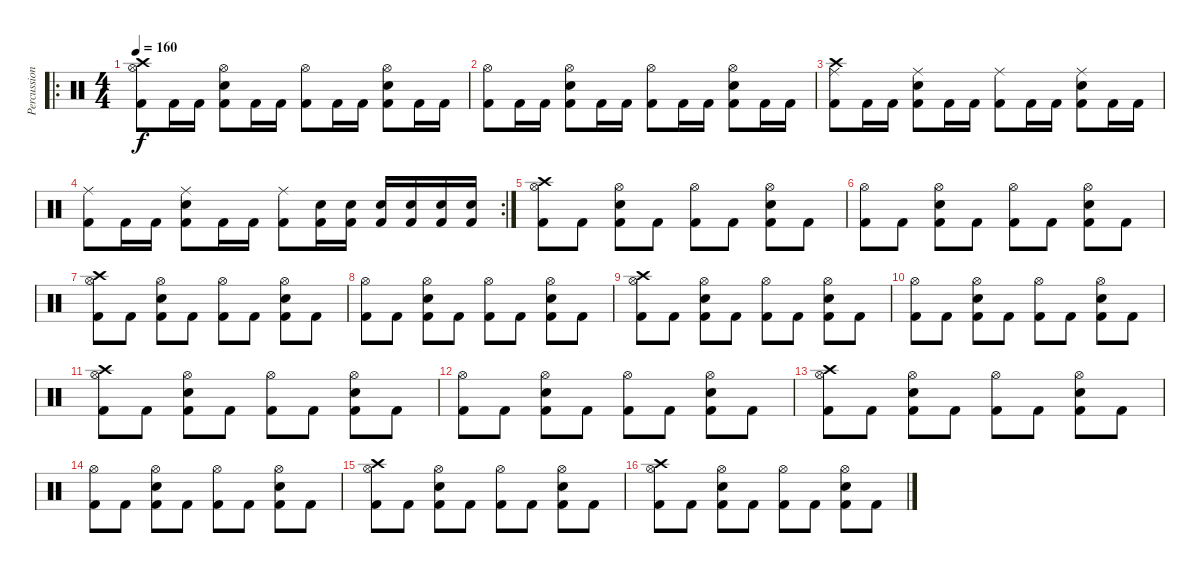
\track ("Percussion" "Percussion") {instrument percussion}
\staff {score}
\articulation defaults
\ro
\ts (4 4)
\tempo 160
\clef neutral
\ks c
("Crash high (hit)" "Hi-Hat (open)" "Kick (hit) 2").8{dy f} "Kick (hit) 2".16 "Kick (hit) 2".16 ("Hi-Hat (open)" "Electric Snare (hit)" "Kick (hit) 2").8 "Kick (hit) 2".16 "Kick (hit) 2".16 ("Hi-Hat (open)" "Kick (hit) 2").8 "Kick (hit) 2".16 "Kick (hit) 2".16 ("Hi-Hat (open)" "Electric Snare (hit)" "Kick (hit) 2").8 "Kick (hit) 2".16 "Kick (hit) 2".16 |
("Hi-Hat (open)" "Kick (hit) 2").8 "Kick (hit) 2".16 "Kick (hit) 2".16 ("Hi-Hat (open)" "Electric Snare (hit)" "Kick (hit) 2").8 "Kick (hit) 2".16 "Kick (hit) 2".16 ("Hi-Hat (open)" "Kick (hit) 2").8 "Kick (hit) 2".16 "Kick (hit) 2".16 ("Hi-Hat (open)" "Electric Snare (hit)" "Kick (hit) 2").8 "Kick (hit) 2".16 "Kick (hit) 2".16 |
("Crash high (hit)" "Ride (middle)" "Kick (hit) 2").8 "Kick (hit) 2".16 "Kick (hit) 2".16 ("Ride (middle)" "Electric Snare (hit)" "Kick (hit) 2").8 "Kick (hit) 2".16 "Kick (hit) 2".16 ("Ride (middle)" "Kick (hit) 2").8 "Kick (hit) 2".16 "Kick (hit) 2".16 ("Ride (middle)" "Electric Snare (hit)" "Kick (hit) 2").8 "Kick (hit) 2".16 "Kick (hit) 2".16 |
\rc 2
("Ride (middle)" "Kick (hit) 2").8 "Kick (hit) 2".16 "Kick (hit) 2".16 ("Ride (middle)" "Electric Snare (hit)" "Kick (hit) 2").8 "Kick (hit) 2".16 "Kick (hit) 2".16 ("Ride (middle)" "Kick (hit) 2").8 ("Electric Snare (hit)" "Kick (hit) 2").16 ("Electric Snare (hit)" "Kick (hit) 2").16 ("Electric Snare (hit)" "Kick (hit) 2").16 ("Electric Snare (hit)" "Kick (hit) 2").16 ("Electric Snare (hit)" "Kick (hit) 2").16 ("Electric Snare (hit)" "Kick (hit) 2").16 |
("Crash high (hit)" "Hi-Hat (open)" "Kick (hit) 2").8 "Kick (hit) 2".8 ("Hi-Hat (open)" "Electric Snare (hit)" "Kick (hit) 2").8 "Kick (hit) 2".8 ("Hi-Hat (open)" "Kick (hit) 2").8 "Kick (hit) 2".8 ("Hi-Hat (open)" "Electric Snare (hit)" "Kick (hit) 2").8 "Kick (hit) 2".8 |
("Hi-Hat (open)" "Kick (hit) 2").8 "Kick (hit) 2".8 ("Hi-Hat (open)" "Electric Snare (hit)" "Kick (hit) 2").8 "Kick (hit) 2".8 ("Hi-Hat (open)" "Kick (hit) 2").8 "Kick (hit) 2".8 ("Hi-Hat (open)" "Electric Snare (hit)" "Kick (hit) 2").8 "Kick (hit) 2".8 |
("Crash high (hit)" "Hi-Hat (open)" "Kick (hit) 2").8 "Kick (hit) 2".8 ("Hi-Hat (open)" "Electric Snare (hit)" "Kick (hit) 2").8 "Kick (hit) 2".8 ("Hi-Hat (open)" "Kick (hit) 2").8 "Kick (hit) 2".8 ("Hi-Hat (open)" "Electric Snare (hit)" "Kick (hit) 2").8 "Kick (hit) 2".8 |
("Hi-Hat (open)" "Kick (hit) 2").8 "Kick (hit) 2".8 ("Hi-Hat (open)" "Electric Snare (hit)" "Kick (hit) 2").8 "Kick (hit) 2".8 ("Hi-Hat (open)" "Kick (hit) 2").8 "Kick (hit) 2".8 ("Hi-Hat (open)" "Electric Snare (hit)" "Kick (hit) 2").8 "Kick (hit) 2".8 |
("Crash high (hit)" "Hi-Hat (open)" "Kick (hit) 2").8 "Kick (hit) 2".8 ("Hi-Hat (open)" "Electric Snare (hit)" "Kick (hit) 2").8 "Kick (hit) 2".8 ("Hi-Hat (open)" "Kick (hit) 2").8 "Kick (hit) 2".8 ("Hi-Hat (open)" "Electric Snare (hit)" "Kick (hit) 2").8 "Kick (hit) 2".8 |
("Hi-Hat (open)" "Kick (hit) 2").8 "Kick (hit) 2".8 ("Hi-Hat (open)" "Electric Snare (hit)" "Kick (hit) 2").8 "Kick (hit) 2".8 ("Hi-Hat (open)" "Kick (hit) 2").8 "Kick (hit) 2".8 ("Hi-Hat (open)" "Electric Snare (hit)" "Kick (hit) 2").8 "Kick (hit) 2".8 |
("Crash high (hit)" "Hi-Hat (open)" "Kick (hit) 2").8 "Kick (hit) 2".8 ("Hi-Hat (open)" "Electric Snare (hit)" "Kick (hit) 2").8 "Kick (hit) 2".8 ("Hi-Hat (open)" "Kick (hit) 2").8 "Kick (hit) 2".8 ("Hi-Hat (open)" "Electric Snare (hit)" "Kick (hit) 2").8 "Kick (hit) 2".8 |
("Hi-Hat (open)" "Kick (hit) 2").8 "Kick (hit) 2".8 ("Hi-Hat (open)" "Electric Snare (hit)" "Kick (hit) 2").8 "Kick (hit) 2".8 ("Hi-Hat (open)" "Kick (hit) 2").8 "Kick (hit) 2".8 ("Hi-Hat (open)" "Electric Snare (hit)" "Kick (hit) 2").8 "Kick (hit) 2".8 |
("Crash high (hit)" "Hi-Hat (open)" "Kick (hit) 2").8 "Kick (hit) 2".8 ("Hi-Hat (open)" "Electric Snare (hit)" "Kick (hit) 2").8 "Kick (hit) 2".8 ("Hi-Hat (open)" "Kick (hit) 2").8 "Kick (hit) 2".8 ("Hi-Hat (open)" "Electric Snare (hit)" "Kick (hit) 2").8 "Kick (hit) 2".8 |
("Hi-Hat (open)" "Kick (hit) 2").8 "Kick (hit) 2".8 ("Hi-Hat (open)" "Electric Snare (hit)" "Kick (hit) 2").8 "Kick (hit) 2".8 ("Hi-Hat (open)" "Kick (hit) 2").8 "Kick (hit) 2".8 ("Hi-Hat (open)" "Electric Snare (hit)" "Kick (hit) 2").8 "Kick (hit) 2".8 |
("Crash high (hit)" "Hi-Hat (open)" "Kick (hit) 2").8 "Kick (hit) 2".8 ("Hi-Hat (open)" "Electric Snare (hit)" "Kick (hit) 2").8 "Kick (hit) 2".8 ("Hi-Hat (open)" "Kick (hit) 2").8 "Kick (hit) 2".8 ("Hi-Hat (open)" "Electric Snare (hit)" "Kick (hit) 2").8 "Kick (hit) 2".8 |
("Crash high (hit)" "Hi-Hat (open)" "Kick (hit) 2").8 "Kick (hit) 2".8 ("Hi-Hat (open)" "Electric Snare (hit)" "Kick (hit) 2").8 "Kick (hit) 2".8 ("Hi-Hat (open)" "Kick (hit) 2").8 "Kick (hit) 2".8 ("Hi-Hat (open)" "Electric Snare (hit)" "Kick (hit) 2").8 "Kick (hit) 2".8
